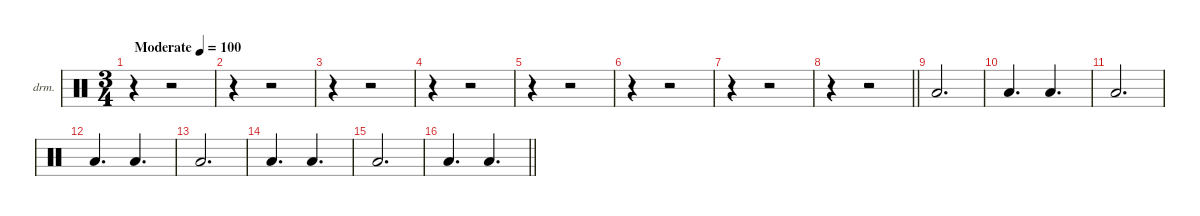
\defaultSystemsLayout 4
\hideDynamics
\bracketExtendMode nobrackets
\firstSystemTrackNameOrientation horizontal
\otherSystemsTrackNameOrientation horizontal
\track ("Dondervuyscht" "drm.") {instrument percussion}
\staff {score}
\articulation defaults
\ts (3 4)
\beaming (8 2 2 2)
\tempo (100 "Moderate")
\clef neutral
\ks c
r.4{dy f} r.2 |
r.4 r.2 |
r.4 r.2 |
r.4 r.2 |
r.4 r.2 |
r.4 r.2 |
r.4 r.2 |
\barLineRight lightlight
r.4 r.2 |
"Low Floor Tom (hit)".2{d} |
"Low Floor Tom (hit)".4{d} "Low Floor Tom (hit)".4{d} |
"Low Floor Tom (hit)".2{d} |
"Low Floor Tom (hit)".4{d} "Low Floor Tom (hit)".4{d} |
"Low Floor Tom (hit)".2{d} |
"Low Floor Tom (hit)".4{d} "Low Floor Tom (hit)".4{d} |
"Low Floor Tom (hit)".2{d} |
\barLineRight lightlight "Low Floor Tom (hit)".4{d} "Low Floor Tom (hit)".4{d}
